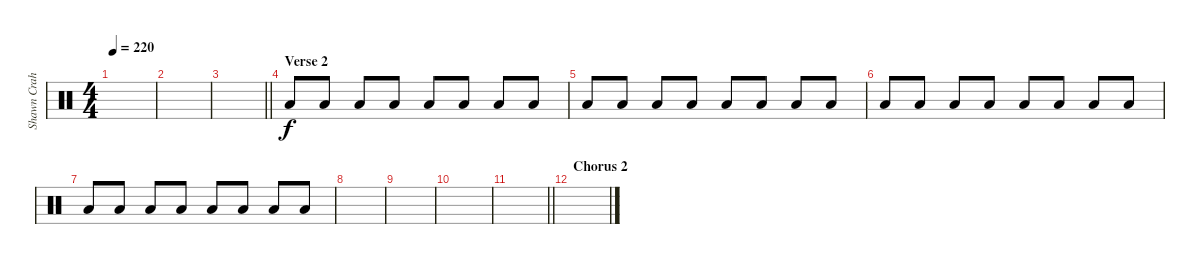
\track ("Shawn Crahan" "Shawn Crah") {instrument percussion}
\staff {score}
\articulation defaults
\ts (4 4)
\tempo 220
\clef neutral
\ks c
|
|
\barLineRight lightlight
|
\section ("" "Verse 2")
"Low Floor Tom (hit)".8 "Low Floor Tom (hit)".8 "Low Floor Tom (hit)".8 "Low Floor Tom (hit)".8 "Low Floor Tom (hit)".8 "Low Floor Tom (hit)".8 "Low Floor Tom (hit)".8 "Low Floor Tom (hit)".8 |
"Low Floor Tom (hit)".8 "Low Floor Tom (hit)".8 "Low Floor Tom (hit)".8 "Low Floor Tom (hit)".8 "Low Floor Tom (hit)".8 "Low Floor Tom (hit)".8 "Low Floor Tom (hit)".8 "Low Floor Tom (hit)".8 |
"Low Floor Tom (hit)".8 "Low Floor Tom (hit)".8 "Low Floor Tom (hit)".8 "Low Floor Tom (hit)".8 "Low Floor Tom (hit)".8 "Low Floor Tom (hit)".8 "Low Floor Tom (hit)".8 "Low Floor Tom (hit)".8 |
"Low Floor Tom (hit)".8 "Low Floor Tom (hit)".8 "Low Floor Tom (hit)".8 "Low Floor Tom (hit)".8 "Low Floor Tom (hit)".8 "Low Floor Tom (hit)".8 "Low Floor Tom (hit)".8 "Low Floor Tom (hit)".8 |
|
|
|
\barLineRight lightlight
|
\section ("" "Chorus 2")
